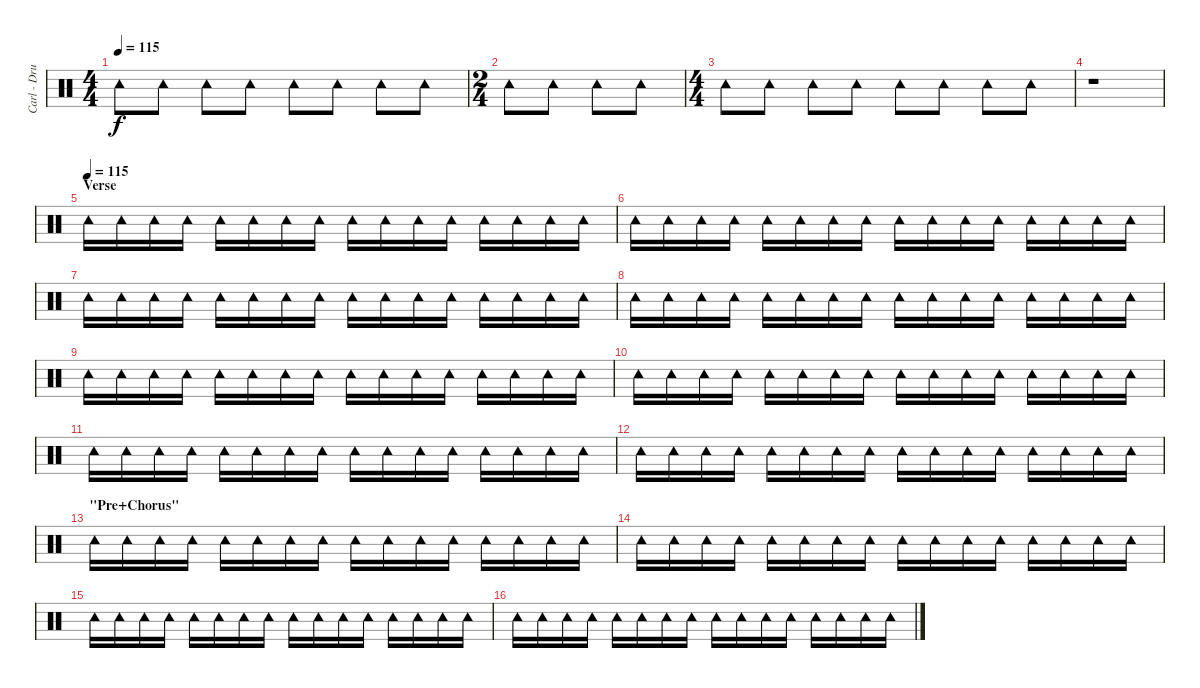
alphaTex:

\track ("Carl - Drums" "Carl - Dru") {instrument percussion}
\staff {score}
\articulation defaults
\ts (4 4)
\tempo 115
\clef neutral
\ks c "Tambourine (hit)".8{dy f} "Tambourine (hit)".8 "Tambourine (hit)".8 "Tambourine (hit)".8 "Tambourine (hit)".8 "Tambourine (hit)".8 "Tambourine (hit)".8 "Tambourine (hit)".8
|
\ts (2 4)
"Tambourine (hit)".8 "Tambourine (hit)".8 "Tambourine (hit)".8 "Tambourine (hit)".8 |
\ts (4 4)
"Tambourine (hit)".8 "Tambourine (hit)".8 "Tambourine (hit)".8 "Tambourine (hit)".8 "Tambourine (hit)".8 "Tambourine (hit)".8 "Tambourine (hit)".8 "Tambourine (hit)".8 |
r.1 |
\section ("" "Verse")
\tempo (115)
"Tambourine (hit)".16 "Tambourine (hit)".16 "Tambourine (hit)".16 "Tambourine (hit)".16 "Tambourine (hit)".16 "Tambourine (hit)".16 "Tambourine (hit)".16 "Tambourine (hit)".16 "Tambourine (hit)".16 "Tambourine (hit)".16 "Tambourine (hit)".16 "Tambourine (hit)".16 "Tambourine (hit)".16 "Tambourine (hit)".16 "Tambourine (hit)".16 "Tambourine (hit)".16 |
"Tambourine (hit)".16 "Tambourine (hit)".16 "Tambourine (hit)".16 "Tambourine (hit)".16 "Tambourine (hit)".16 "Tambourine (hit)".16 "Tambourine (hit)".16 "Tambourine (hit)".16 "Tambourine (hit)".16 "Tambourine (hit)".16 "Tambourine (hit)".16 "Tambourine (hit)".16 "Tambourine (hit)".16 "Tambourine (hit)".16 "Tambourine (hit)".16 "Tambourine (hit)".16 |
"Tambourine (hit)".16 "Tambourine (hit)".16 "Tambourine (hit)".16 "Tambourine (hit)".16 "Tambourine (hit)".16 "Tambourine (hit)".16 "Tambourine (hit)".16 "Tambourine (hit)".16 "Tambourine (hit)".16 "Tambourine (hit)".16 "Tambourine (hit)".16 "Tambourine (hit)".16 "Tambourine (hit)".16 "Tambourine (hit)".16 "Tambourine (hit)".16 "Tambourine (hit)".16 |
"Tambourine (hit)".16 "Tambourine (hit)".16 "Tambourine (hit)".16 "Tambourine (hit)".16 "Tambourine (hit)".16 "Tambourine (hit)".16 "Tambourine (hit)".16 "Tambourine (hit)".16 "Tambourine (hit)".16 "Tambourine (hit)".16 "Tambourine (hit)".16 "Tambourine (hit)".16 "Tambourine (hit)".16 "Tambourine (hit)".16 "Tambourine (hit)".16 "Tambourine (hit)".16 |
"Tambourine (hit)".16 "Tambourine (hit)".16 "Tambourine (hit)".16 "Tambourine (hit)".16 "Tambourine (hit)".16 "Tambourine (hit)".16 "Tambourine (hit)".16 "Tambourine (hit)".16 "Tambourine (hit)".16 "Tambourine (hit)".16 "Tambourine (hit)".16 "Tambourine (hit)".16 "Tambourine (hit)".16 "Tambourine (hit)".16 "Tambourine (hit)".16 "Tambourine (hit)".16 |
"Tambourine (hit)".16 "Tambourine (hit)".16 "Tambourine (hit)".16 "Tambourine (hit)".16 "Tambourine (hit)".16 "Tambourine (hit)".16 "Tambourine (hit)".16 "Tambourine (hit)".16 "Tambourine (hit)".16 "Tambourine (hit)".16 "Tambourine (hit)".16 "Tambourine (hit)".16 "Tambourine (hit)".16 "Tambourine (hit)".16 "Tambourine (hit)".16 "Tambourine (hit)".16 |
"Tambourine (hit)".16 "Tambourine (hit)".16 "Tambourine (hit)".16 "Tambourine (hit)".16 "Tambourine (hit)".16 "Tambourine (hit)".16 "Tambourine (hit)".16 "Tambourine (hit)".16 "Tambourine (hit)".16 "Tambourine (hit)".16 "Tambourine (hit)".16 "Tambourine (hit)".16 "Tambourine (hit)".16 "Tambourine (hit)".16 "Tambourine (hit)".16 "Tambourine (hit)".16 |
"Tambourine (hit)".16 "Tambourine (hit)".16 "Tambourine (hit)".16 "Tambourine (hit)".16 "Tambourine (hit)".16 "Tambourine (hit)".16 "Tambourine (hit)".16 "Tambourine (hit)".16 "Tambourine (hit)".16 "Tambourine (hit)".16 "Tambourine (hit)".16 "Tambourine (hit)".16 "Tambourine (hit)".16 "Tambourine (hit)".16 "Tambourine (hit)".16 "Tambourine (hit)".16 |
\section ("" "\"Pre+Chorus\"")
"Tambourine (hit)".16 "Tambourine (hit)".16 "Tambourine (hit)".16 "Tambourine (hit)".16 "Tambourine (hit)".16 "Tambourine (hit)".16 "Tambourine (hit)".16 "Tambourine (hit)".16 "Tambourine (hit)".16 "Tambourine (hit)".16 "Tambourine (hit)".16 "Tambourine (hit)".16 "Tambourine (hit)".16 "Tambourine (hit)".16 "Tambourine (hit)".16 "Tambourine (hit)".16 |
"Tambourine (hit)".16 "Tambourine (hit)".16 "Tambourine (hit)".16 "Tambourine (hit)".16 "Tambourine (hit)".16 "Tambourine (hit)".16 "Tambourine (hit)".16 "Tambourine (hit)".16 "Tambourine (hit)".16 "Tambourine (hit)".16 "Tambourine (hit)".16 "Tambourine (hit)".16 "Tambourine (hit)".16 "Tambourine (hit)".16 "Tambourine (hit)".16 "Tambourine (hit)".16 |
"Tambourine (hit)".16 "Tambourine (hit)".16 "Tambourine (hit)".16 "Tambourine (hit)".16 "Tambourine (hit)".16 "Tambourine (hit)".16 "Tambourine (hit)".16 "Tambourine (hit)".16 "Tambourine (hit)".16 "Tambourine (hit)".16 "Tambourine (hit)".16 "Tambourine (hit)".16 "Tambourine (hit)".16 "Tambourine (hit)".16 "Tambourine (hit)".16 "Tambourine (hit)".16 |
"Tambourine (hit)".16 "Tambourine (hit)".16 "Tambourine (hit)".16 "Tambourine (hit)".16 "Tambourine (hit)".16 "Tambourine (hit)".16 "Tambourine (hit)".16 "Tambourine (hit)".16 "Tambourine (hit)".16 "Tambourine (hit)".16 "Tambourine (hit)".16 "Tambourine (hit)".16 "Tambourine (hit)".16 "Tambourine (hit)".16 "Tambourine (hit)".16 "Tambourine (hit)".16
